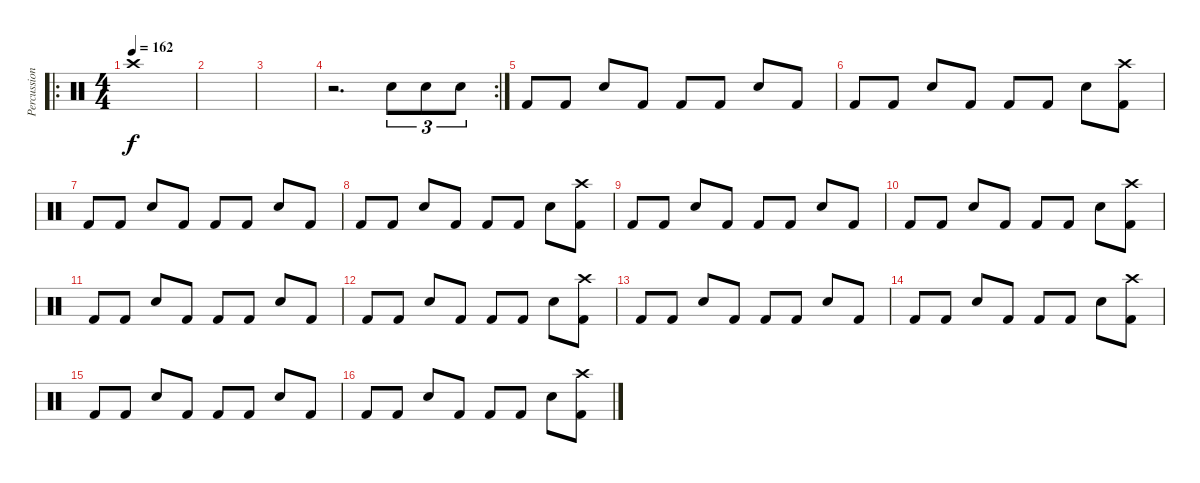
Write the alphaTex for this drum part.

\track ("Percussion" "Percussion") {instrument percussion}
\staff {score}
\articulation defaults
\ro
\ts (4 4)
\tempo 162
\clef neutral
\ks c "Crash high (hit)".1{dy f}
|
|
|
\rc 2
r.2{d} "Snare (hit) 2".8{tu (3 2)} "Snare (hit) 2".8{tu (3 2)} "Snare (hit) 2".8{tu (3 2)} |
"Kick (hit) 2".8 "Kick (hit) 2".8 "Snare (hit) 2".8 "Kick (hit) 2".8 "Kick (hit) 2".8 "Kick (hit) 2".8 "Snare (hit) 2".8 "Kick (hit) 2".8 |
"Kick (hit) 2".8 "Kick (hit) 2".8 "Snare (hit) 2".8 "Kick (hit) 2".8 "Kick (hit) 2".8 "Kick (hit) 2".8 "Snare (hit) 2".8 ("Crash high (hit)" "Kick (hit) 2").8 |
"Kick (hit) 2".8 "Kick (hit) 2".8 "Snare (hit) 2".8 "Kick (hit) 2".8 "Kick (hit) 2".8 "Kick (hit) 2".8 "Snare (hit) 2".8 "Kick (hit) 2".8 |
"Kick (hit) 2".8 "Kick (hit) 2".8 "Snare (hit) 2".8 "Kick (hit) 2".8 "Kick (hit) 2".8 "Kick (hit) 2".8 "Snare (hit) 2".8 ("Crash high (hit)" "Kick (hit) 2").8 |
"Kick (hit) 2".8 "Kick (hit) 2".8 "Snare (hit) 2".8 "Kick (hit) 2".8 "Kick (hit) 2".8 "Kick (hit) 2".8 "Snare (hit) 2".8 "Kick (hit) 2".8 |
"Kick (hit) 2".8 "Kick (hit) 2".8 "Snare (hit) 2".8 "Kick (hit) 2".8 "Kick (hit) 2".8 "Kick (hit) 2".8 "Snare (hit) 2".8 ("Crash high (hit)" "Kick (hit) 2").8 |
"Kick (hit) 2".8 "Kick (hit) 2".8 "Snare (hit) 2".8 "Kick (hit) 2".8 "Kick (hit) 2".8 "Kick (hit) 2".8 "Snare (hit) 2".8 "Kick (hit) 2".8 |
"Kick (hit) 2".8 "Kick (hit) 2".8 "Snare (hit) 2".8 "Kick (hit) 2".8 "Kick (hit) 2".8 "Kick (hit) 2".8 "Snare (hit) 2".8 ("Crash high (hit)" "Kick (hit) 2").8 |
"Kick (hit) 2".8 "Kick (hit) 2".8 "Snare (hit) 2".8 "Kick (hit) 2".8 "Kick (hit) 2".8 "Kick (hit) 2".8 "Snare (hit) 2".8 "Kick (hit) 2".8 |
"Kick (hit) 2".8 "Kick (hit) 2".8 "Snare (hit) 2".8 "Kick (hit) 2".8 "Kick (hit) 2".8 "Kick (hit) 2".8 "Snare (hit) 2".8 ("Crash high (hit)" "Kick (hit) 2").8 |
"Kick (hit) 2".8 "Kick (hit) 2".8 "Snare (hit) 2".8 "Kick (hit) 2".8 "Kick (hit) 2".8 "Kick (hit) 2".8 "Snare (hit) 2".8 "Kick (hit) 2".8 |
"Kick (hit) 2".8 "Kick (hit) 2".8 "Snare (hit) 2".8 "Kick (hit) 2".8 "Kick (hit) 2".8 "Kick (hit) 2".8 "Snare (hit) 2".8 ("Crash high (hit)" "Kick (hit) 2").8
